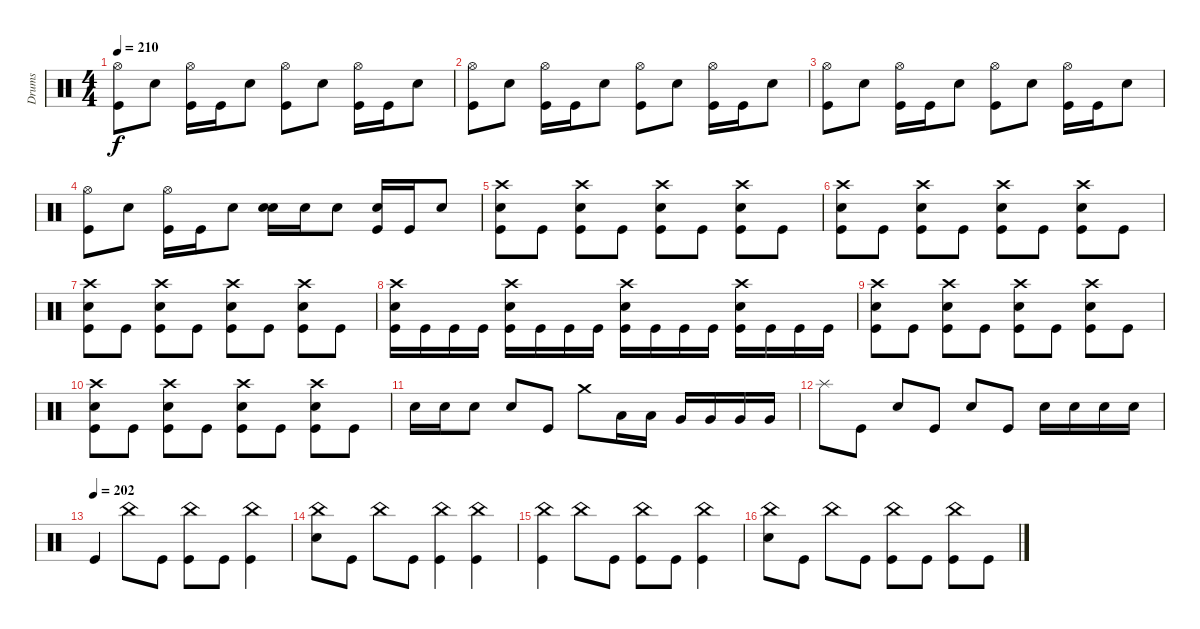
\track ("Drums" "Drums") {instrument percussion}
\staff {score}
\articulation defaults
\ts (4 4)
\tempo 210
\clef neutral
\ks c
("Hi-Hat (open)" "Kick (hit)").8{dy f} "Snare (hit) 2".8 ("Hi-Hat (open)" "Kick (hit)").16 "Kick (hit)".16 "Snare (hit) 2".8 ("Hi-Hat (open)" "Kick (hit)").8 "Snare (hit) 2".8 ("Hi-Hat (open)" "Kick (hit)").16 "Kick (hit)".16 "Snare (hit) 2".8 |
("Hi-Hat (open)" "Kick (hit)").8 "Snare (hit) 2".8 ("Hi-Hat (open)" "Kick (hit)").16 "Kick (hit)".16 "Snare (hit) 2".8 ("Hi-Hat (open)" "Kick (hit)").8 "Snare (hit) 2".8 ("Hi-Hat (open)" "Kick (hit)").16 "Kick (hit)".16 "Snare (hit) 2".8 |
("Hi-Hat (open)" "Kick (hit)").8 "Snare (hit) 2".8 ("Hi-Hat (open)" "Kick (hit)").16 "Kick (hit)".16 "Snare (hit) 2".8 ("Hi-Hat (open)" "Kick (hit)").8 "Snare (hit) 2".8 ("Hi-Hat (open)" "Kick (hit)").16 "Kick (hit)".16 "Snare (hit) 2".8 |
("Hi-Hat (open)" "Kick (hit)").8 "Snare (hit) 2".8 ("Hi-Hat (open)" "Kick (hit)").16 "Kick (hit)".16 "Snare (hit) 2".8 ("Snare (hit) 2" "Snare (hit) 2").16 "Snare (hit) 2".16 "Snare (hit) 2".8 ("Snare (hit) 2" "Kick (hit)").16 "Kick (hit)".16 "Snare (hit) 2".8 |
("Crash high (hit)" "Snare (hit) 2" "Kick (hit)").8 "Kick (hit)".8 ("Crash high (hit)" "Snare (hit) 2" "Kick (hit)").8 "Kick (hit)".8 ("Crash high (hit)" "Snare (hit) 2" "Kick (hit)").8 "Kick (hit)".8 ("Crash high (hit)" "Snare (hit) 2" "Kick (hit)").8 "Kick (hit)".8 |
("Crash high (hit)" "Snare (hit) 2" "Kick (hit)").8 "Kick (hit)".8 ("Crash high (hit)" "Snare (hit) 2" "Kick (hit)").8 "Kick (hit)".8 ("Crash high (hit)" "Snare (hit) 2" "Kick (hit)").8 "Kick (hit)".8 ("Crash high (hit)" "Snare (hit) 2" "Kick (hit)").8 "Kick (hit)".8 |
("Crash high (hit)" "Snare (hit) 2" "Kick (hit)").8 "Kick (hit)".8 ("Crash high (hit)" "Snare (hit) 2" "Kick (hit)").8 "Kick (hit)".8 ("Crash high (hit)" "Snare (hit) 2" "Kick (hit)").8 "Kick (hit)".8 ("Crash high (hit)" "Snare (hit) 2" "Kick (hit)").8 "Kick (hit)".8 |
("Crash high (hit)" "Snare (hit) 2" "Kick (hit)").16 "Kick (hit)".16 "Kick (hit)".16 "Kick (hit)".16 ("Crash high (hit)" "Snare (hit) 2" "Kick (hit)").16 "Kick (hit)".16 "Kick (hit)".16 "Kick (hit)".16 ("Crash high (hit)" "Snare (hit) 2" "Kick (hit)").16 "Kick (hit)".16 "Kick (hit)".16 "Kick (hit)".16 ("Crash high (hit)" "Snare (hit) 2" "Kick (hit)").16 "Kick (hit)".16 "Kick (hit)".16 "Kick (hit)".16 |
("Crash high (hit)" "Snare (hit) 2" "Kick (hit)").8 "Kick (hit)".8 ("Crash high (hit)" "Snare (hit) 2" "Kick (hit)").8 "Kick (hit)".8 ("Crash high (hit)" "Snare (hit) 2" "Kick (hit)").8 "Kick (hit)".8 ("Crash high (hit)" "Snare (hit) 2" "Kick (hit)").8 "Kick (hit)".8 |
("Crash high (hit)" "Snare (hit) 2" "Kick (hit)").8 "Kick (hit)".8 ("Crash high (hit)" "Snare (hit) 2" "Kick (hit)").8 "Kick (hit)".8 ("Crash high (hit)" "Snare (hit) 2" "Kick (hit)").8 "Kick (hit)".8 ("Crash high (hit)" "Snare (hit) 2" "Kick (hit)").8 "Kick (hit)".8 |
"Snare (hit) 2".16 "Snare (hit) 2".16 "Snare (hit) 2".8 "Snare (hit) 2".8 "Kick (hit)".8 "Crash medium (hit)".8 "Low Tom (hit)".16 "Low Tom (hit)".16 "Very Low Tom (hit)".16 "Very Low Tom (hit)".16 "Very Low Tom (hit)".16 "Very Low Tom (hit)".16 |
"Splash (hit)".8 "Kick (hit)".8 "Snare (hit) 2".8 "Kick (hit)".8 "Snare (hit) 2".8 "Kick (hit)".8 "Snare (hit) 2".16 "Snare (hit) 2".16 "Snare (hit) 2".16 "Snare (hit) 2".16 |
\tempo (202)
"Kick (hit)".4 "China (hit)".8 "Kick (hit)".8 ("China (hit)" "Kick (hit)").8 "Kick (hit)".8 ("China (hit)" "Kick (hit)").4 |
("China (hit)" "Snare (hit) 2").8 "Kick (hit)".8 "China (hit)".8 "Kick (hit)".8 ("China (hit)" "Kick (hit)").4 ("China (hit)" "Kick (hit)").4 |
("China (hit)" "Kick (hit)").4 "China (hit)".8 "Kick (hit)".8 ("China (hit)" "Kick (hit)").8 "Kick (hit)".8 ("China (hit)" "Kick (hit)").4 |
("China (hit)" "Snare (hit) 2").8 "Kick (hit)".8 "China (hit)".8 "Kick (hit)".8 ("China (hit)" "Kick (hit)").8 "Kick (hit)".8 ("China (hit)" "Kick (hit)").8 "Kick (hit)".8
